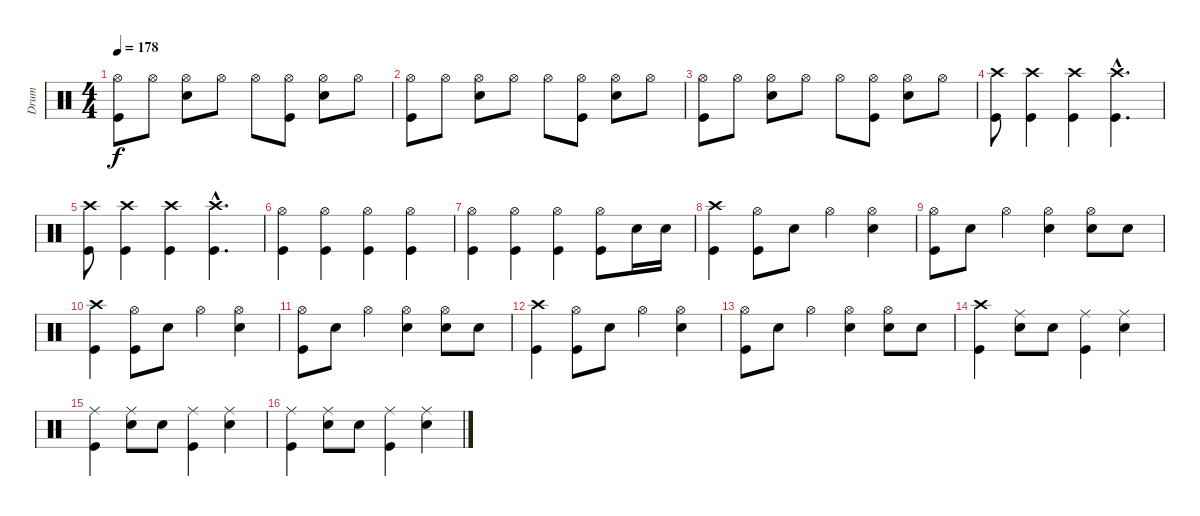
\track ("Drum" "Drum") {instrument percussion}
\staff {score}
\articulation defaults
\ts (4 4)
\tempo 178
\clef neutral
\ks c
("Hi-Hat (open)" "Kick (hit)").8{dy f} "Hi-Hat (open)".8 ("Hi-Hat (open)" "Snare (hit) 2").8 "Hi-Hat (open)".8 "Hi-Hat (open)".8 ("Hi-Hat (open)" "Kick (hit)").8 ("Hi-Hat (open)" "Snare (hit) 2").8 "Hi-Hat (open)".8 |
("Hi-Hat (open)" "Kick (hit)").8 "Hi-Hat (open)".8 ("Hi-Hat (open)" "Snare (hit) 2").8 "Hi-Hat (open)".8 "Hi-Hat (open)".8 ("Hi-Hat (open)" "Kick (hit)").8 ("Hi-Hat (open)" "Snare (hit) 2").8 "Hi-Hat (open)".8 |
("Hi-Hat (open)" "Kick (hit)").8 "Hi-Hat (open)".8 ("Hi-Hat (open)" "Snare (hit) 2").8 "Hi-Hat (open)".8 "Hi-Hat (open)".8 ("Hi-Hat (open)" "Kick (hit)").8 ("Hi-Hat (open)" "Snare (hit) 2").8 "Hi-Hat (open)".8 |
("Crash high (hit)" "Kick (hit)").8 ("Crash high (hit)" "Kick (hit)").4 ("Crash high (hit)" "Kick (hit)").4 ("Crash high (hit)"{hac} "Kick (hit)"{hac}).4{d} |
("Crash high (hit)" "Kick (hit)").8 ("Crash high (hit)" "Kick (hit)").4 ("Crash high (hit)" "Kick (hit)").4 ("Crash high (hit)"{hac} "Kick (hit)"{hac}).4{d} |
("Hi-Hat (open)" "Kick (hit)").4 ("Hi-Hat (open)" "Kick (hit)").4 ("Hi-Hat (open)" "Kick (hit)").4 ("Hi-Hat (open)" "Kick (hit)").4 |
("Hi-Hat (open)" "Kick (hit)").4 ("Hi-Hat (open)" "Kick (hit)").4 ("Hi-Hat (open)" "Kick (hit)").4 ("Hi-Hat (open)" "Kick (hit)").8 "Snare (hit) 2".16 "Snare (hit) 2".16 |
("Crash high (hit)" "Kick (hit)").4 ("Hi-Hat (open)" "Kick (hit)").8 "Snare (hit) 2".8 "Hi-Hat (open)".4 ("Hi-Hat (open)" "Snare (hit) 2").4 |
("Hi-Hat (open)" "Kick (hit)").8 "Snare (hit) 2".8 "Hi-Hat (open)".4 ("Hi-Hat (open)" "Snare (hit) 2").4 ("Hi-Hat (open)" "Snare (hit) 2").8 "Snare (hit) 2".8 |
("Crash high (hit)" "Kick (hit)").4 ("Hi-Hat (open)" "Kick (hit)").8 "Snare (hit) 2".8 "Hi-Hat (open)".4 ("Hi-Hat (open)" "Snare (hit) 2").4 |
("Hi-Hat (open)" "Kick (hit)").8 "Snare (hit) 2".8 "Hi-Hat (open)".4 ("Hi-Hat (open)" "Snare (hit) 2").4 ("Hi-Hat (open)" "Snare (hit) 2").8 "Snare (hit) 2".8 |
("Crash high (hit)" "Kick (hit)").4 ("Hi-Hat (open)" "Kick (hit)").8 "Snare (hit) 2".8 "Hi-Hat (open)".4 ("Hi-Hat (open)" "Snare (hit) 2").4 |
("Hi-Hat (open)" "Kick (hit)").8 "Snare (hit) 2".8 "Hi-Hat (open)".4 ("Hi-Hat (open)" "Snare (hit) 2").4 ("Hi-Hat (open)" "Snare (hit) 2").8 "Snare (hit) 2".8 |
("Crash high (hit)" "Kick (hit)").4 ("Ride (middle)" "Snare (hit) 2").8 "Snare (hit) 2".8 ("Ride (middle)" "Kick (hit)").4 ("Ride (middle)" "Snare (hit) 2").4 |
("Ride (middle)" "Kick (hit)").4 ("Ride (middle)" "Snare (hit) 2").8 "Snare (hit) 2".8 ("Ride (middle)" "Kick (hit)").4 ("Ride (middle)" "Snare (hit) 2").4 |
("Ride (middle)" "Kick (hit)").4 ("Ride (middle)" "Snare (hit) 2").8 "Snare (hit) 2".8 ("Ride (middle)" "Kick (hit)").4 ("Ride (middle)" "Snare (hit) 2").4
